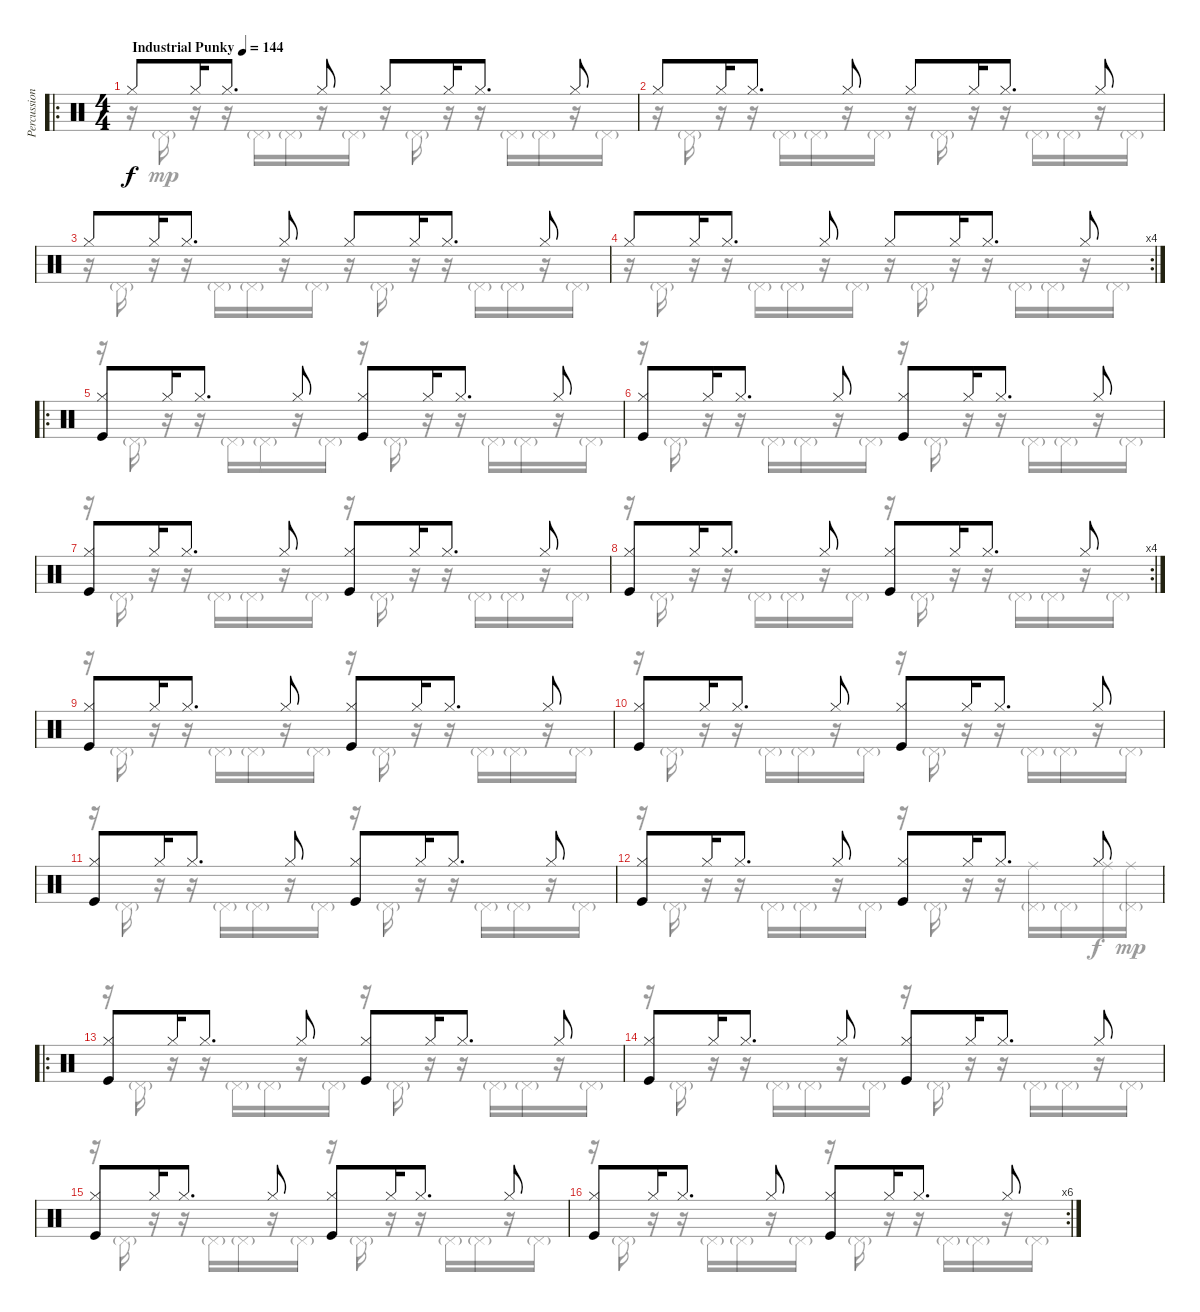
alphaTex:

\track ("Percussion" "Percussion") {instrument percussion}
\staff {score}
\articulation defaults
\voice
\ro
\ts (4 4)
\tempo (144 "Industrial Punky")
\clef neutral
\ks c "Hi-Hat (closed)".8{dy f} "Hi-Hat (closed)".16 "Hi-Hat (closed)".8{d} "Hi-Hat (closed)".8 "Hi-Hat (closed)".8 "Hi-Hat (closed)".16 "Hi-Hat (closed)".8{d} "Hi-Hat (closed)".8
|
"Hi-Hat (closed)".8 "Hi-Hat (closed)".16 "Hi-Hat (closed)".8{d} "Hi-Hat (closed)".8 "Hi-Hat (closed)".8 "Hi-Hat (closed)".16 "Hi-Hat (closed)".8{d} "Hi-Hat (closed)".8 |
"Hi-Hat (closed)".8 "Hi-Hat (closed)".16 "Hi-Hat (closed)".8{d} "Hi-Hat (closed)".8 "Hi-Hat (closed)".8 "Hi-Hat (closed)".16 "Hi-Hat (closed)".8{d} "Hi-Hat (closed)".8 |
\rc 4 "Hi-Hat (closed)".8 "Hi-Hat (closed)".16 "Hi-Hat (closed)".8{d} "Hi-Hat (closed)".8 "Hi-Hat (closed)".8 "Hi-Hat (closed)".16 "Hi-Hat (closed)".8{d} "Hi-Hat (closed)".8
|
\ro
("Hi-Hat (closed)" "Kick (hit)").8 "Hi-Hat (closed)".16 "Hi-Hat (closed)".8{d} "Hi-Hat (closed)".8 ("Hi-Hat (closed)" "Kick (hit)").8 "Hi-Hat (closed)".16 "Hi-Hat (closed)".8{d} "Hi-Hat (closed)".8 |
("Hi-Hat (closed)" "Kick (hit)").8 "Hi-Hat (closed)".16 "Hi-Hat (closed)".8{d} "Hi-Hat (closed)".8 ("Hi-Hat (closed)" "Kick (hit)").8 "Hi-Hat (closed)".16 "Hi-Hat (closed)".8{d} "Hi-Hat (closed)".8 |
("Hi-Hat (closed)" "Kick (hit)").8 "Hi-Hat (closed)".16 "Hi-Hat (closed)".8{d} "Hi-Hat (closed)".8 ("Hi-Hat (closed)" "Kick (hit)").8 "Hi-Hat (closed)".16 "Hi-Hat (closed)".8{d} "Hi-Hat (closed)".8 |
\rc 4
("Hi-Hat (closed)" "Kick (hit)").8 "Hi-Hat (closed)".16 "Hi-Hat (closed)".8{d} "Hi-Hat (closed)".8 ("Hi-Hat (closed)" "Kick (hit)").8 "Hi-Hat (closed)".16 "Hi-Hat (closed)".8{d} "Hi-Hat (closed)".8 |
("Hi-Hat (closed)" "Kick (hit)").8 "Hi-Hat (closed)".16 "Hi-Hat (closed)".8{d} "Hi-Hat (closed)".8 ("Hi-Hat (closed)" "Kick (hit)").8 "Hi-Hat (closed)".16 "Hi-Hat (closed)".8{d} "Hi-Hat (closed)".8 |
("Hi-Hat (closed)" "Kick (hit)").8 "Hi-Hat (closed)".16 "Hi-Hat (closed)".8{d} "Hi-Hat (closed)".8 ("Hi-Hat (closed)" "Kick (hit)").8 "Hi-Hat (closed)".16 "Hi-Hat (closed)".8{d} "Hi-Hat (closed)".8 |
("Hi-Hat (closed)" "Kick (hit)").8 "Hi-Hat (closed)".16 "Hi-Hat (closed)".8{d} "Hi-Hat (closed)".8 ("Hi-Hat (closed)" "Kick (hit)").8 "Hi-Hat (closed)".16 "Hi-Hat (closed)".8{d} "Hi-Hat (closed)".8 |
("Hi-Hat (closed)" "Kick (hit)").8 "Hi-Hat (closed)".16 "Hi-Hat (closed)".8{d} "Hi-Hat (closed)".8 ("Hi-Hat (closed)" "Kick (hit)").8 "Hi-Hat (closed)".16 "Hi-Hat (closed)".8{d} "Hi-Hat (closed)".8 |
\ro
("Hi-Hat (closed)" "Kick (hit)").8 "Hi-Hat (closed)".16 "Hi-Hat (closed)".8{d} "Hi-Hat (closed)".8 ("Hi-Hat (closed)" "Kick (hit)").8 "Hi-Hat (closed)".16 "Hi-Hat (closed)".8{d} "Hi-Hat (closed)".8 |
("Hi-Hat (closed)" "Kick (hit)").8 "Hi-Hat (closed)".16 "Hi-Hat (closed)".8{d} "Hi-Hat (closed)".8 ("Hi-Hat (closed)" "Kick (hit)").8 "Hi-Hat (closed)".16 "Hi-Hat (closed)".8{d} "Hi-Hat (closed)".8 |
("Hi-Hat (closed)" "Kick (hit)").8 "Hi-Hat (closed)".16 "Hi-Hat (closed)".8{d} "Hi-Hat (closed)".8 ("Hi-Hat (closed)" "Kick (hit)").8 "Hi-Hat (closed)".16 "Hi-Hat (closed)".8{d} "Hi-Hat (closed)".8 |
\rc 6
("Hi-Hat (closed)" "Kick (hit)").8 "Hi-Hat (closed)".16 "Hi-Hat (closed)".8{d} "Hi-Hat (closed)".8 ("Hi-Hat (closed)" "Kick (hit)").8 "Hi-Hat (closed)".16 "Hi-Hat (closed)".8{d} "Hi-Hat (closed)".8
\voice
\clef neutral
\ottava regular
\simile none
\ks c
r.16{dy mp} "Pedal Hi-Hat (hit)"{g}.16 r.16 r.16 "Pedal Hi-Hat (hit)"{g}.16 "Pedal Hi-Hat (hit)"{g}.16 r.16 "Pedal Hi-Hat (hit)"{g}.16 r.16 "Pedal Hi-Hat (hit)"{g}.16 r.16 r.16 "Pedal Hi-Hat (hit)"{g}.16 "Pedal Hi-Hat (hit)"{g}.16 r.16 "Pedal Hi-Hat (hit)"{g}.16 |
r.16 "Pedal Hi-Hat (hit)"{g}.16 r.16 r.16 "Pedal Hi-Hat (hit)"{g}.16 "Pedal Hi-Hat (hit)"{g}.16 r.16 "Pedal Hi-Hat (hit)"{g}.16 r.16 "Pedal Hi-Hat (hit)"{g}.16 r.16 r.16 "Pedal Hi-Hat (hit)"{g}.16 "Pedal Hi-Hat (hit)"{g}.16 r.16 "Pedal Hi-Hat (hit)"{g}.16 |
r.16 "Pedal Hi-Hat (hit)"{g}.16 r.16 r.16 "Pedal Hi-Hat (hit)"{g}.16 "Pedal Hi-Hat (hit)"{g}.16 r.16 "Pedal Hi-Hat (hit)"{g}.16 r.16 "Pedal Hi-Hat (hit)"{g}.16 r.16 r.16 "Pedal Hi-Hat (hit)"{g}.16 "Pedal Hi-Hat (hit)"{g}.16 r.16 "Pedal Hi-Hat (hit)"{g}.16 |
r.16 "Pedal Hi-Hat (hit)"{g}.16 r.16 r.16 "Pedal Hi-Hat (hit)"{g}.16 "Pedal Hi-Hat (hit)"{g}.16 r.16 "Pedal Hi-Hat (hit)"{g}.16 r.16 "Pedal Hi-Hat (hit)"{g}.16 r.16 r.16 "Pedal Hi-Hat (hit)"{g}.16 "Pedal Hi-Hat (hit)"{g}.16 r.16 "Pedal Hi-Hat (hit)"{g}.16 |
r.16 "Pedal Hi-Hat (hit)"{g}.16 r.16 r.16 "Pedal Hi-Hat (hit)"{g}.16 "Pedal Hi-Hat (hit)"{g}.16 r.16 "Pedal Hi-Hat (hit)"{g}.16 r.16 "Pedal Hi-Hat (hit)"{g}.16 r.16 r.16 "Pedal Hi-Hat (hit)"{g}.16 "Pedal Hi-Hat (hit)"{g}.16 r.16 "Pedal Hi-Hat (hit)"{g}.16 |
r.16 "Pedal Hi-Hat (hit)"{g}.16 r.16 r.16 "Pedal Hi-Hat (hit)"{g}.16 "Pedal Hi-Hat (hit)"{g}.16 r.16 "Pedal Hi-Hat (hit)"{g}.16 r.16 "Pedal Hi-Hat (hit)"{g}.16 r.16 r.16 "Pedal Hi-Hat (hit)"{g}.16 "Pedal Hi-Hat (hit)"{g}.16 r.16 "Pedal Hi-Hat (hit)"{g}.16 |
r.16 "Pedal Hi-Hat (hit)"{g}.16 r.16 r.16 "Pedal Hi-Hat (hit)"{g}.16 "Pedal Hi-Hat (hit)"{g}.16 r.16 "Pedal Hi-Hat (hit)"{g}.16 r.16 "Pedal Hi-Hat (hit)"{g}.16 r.16 r.16 "Pedal Hi-Hat (hit)"{g}.16 "Pedal Hi-Hat (hit)"{g}.16 r.16 "Pedal Hi-Hat (hit)"{g}.16 |
r.16 "Pedal Hi-Hat (hit)"{g}.16 r.16 r.16 "Pedal Hi-Hat (hit)"{g}.16 "Pedal Hi-Hat (hit)"{g}.16 r.16 "Pedal Hi-Hat (hit)"{g}.16 r.16 "Pedal Hi-Hat (hit)"{g}.16 r.16 r.16 "Pedal Hi-Hat (hit)"{g}.16 "Pedal Hi-Hat (hit)"{g}.16 r.16 "Pedal Hi-Hat (hit)"{g}.16 |
r.16 "Pedal Hi-Hat (hit)"{g}.16 r.16 r.16 "Pedal Hi-Hat (hit)"{g}.16 "Pedal Hi-Hat (hit)"{g}.16 r.16 "Pedal Hi-Hat (hit)"{g}.16 r.16 "Pedal Hi-Hat (hit)"{g}.16 r.16 r.16 "Pedal Hi-Hat (hit)"{g}.16 "Pedal Hi-Hat (hit)"{g}.16 r.16 "Pedal Hi-Hat (hit)"{g}.16 |
r.16 "Pedal Hi-Hat (hit)"{g}.16 r.16 r.16 "Pedal Hi-Hat (hit)"{g}.16 "Pedal Hi-Hat (hit)"{g}.16 r.16 "Pedal Hi-Hat (hit)"{g}.16 r.16 "Pedal Hi-Hat (hit)"{g}.16 r.16 r.16 "Pedal Hi-Hat (hit)"{g}.16 "Pedal Hi-Hat (hit)"{g}.16 r.16 "Pedal Hi-Hat (hit)"{g}.16 |
r.16 "Pedal Hi-Hat (hit)"{g}.16 r.16 r.16 "Pedal Hi-Hat (hit)"{g}.16 "Pedal Hi-Hat (hit)"{g}.16 r.16 "Pedal Hi-Hat (hit)"{g}.16 r.16 "Pedal Hi-Hat (hit)"{g}.16 r.16 r.16 "Pedal Hi-Hat (hit)"{g}.16 "Pedal Hi-Hat (hit)"{g}.16 r.16 "Pedal Hi-Hat (hit)"{g}.16 |
r.16 "Pedal Hi-Hat (hit)"{g}.16 r.16 r.16 "Pedal Hi-Hat (hit)"{g}.16 "Pedal Hi-Hat (hit)"{g}.16 r.16 "Pedal Hi-Hat (hit)"{g}.16 r.16 "Pedal Hi-Hat (hit)"{g}.16 r.16 r.16 ("Ride (middle)" "Pedal Hi-Hat (hit)"{g}).16 "Pedal Hi-Hat (hit)"{g}.16 "Ride (middle)".16{dy f} ("Ride (middle)" "Pedal Hi-Hat (hit)"{g}).16{dy mp} |
r.16 "Pedal Hi-Hat (hit)"{g}.16 r.16 r.16 "Pedal Hi-Hat (hit)"{g}.16 "Pedal Hi-Hat (hit)"{g}.16 r.16 "Pedal Hi-Hat (hit)"{g}.16 r.16 "Pedal Hi-Hat (hit)"{g}.16 r.16 r.16 "Pedal Hi-Hat (hit)"{g}.16 "Pedal Hi-Hat (hit)"{g}.16 r.16 "Pedal Hi-Hat (hit)"{g}.16 |
r.16 "Pedal Hi-Hat (hit)"{g}.16 r.16 r.16 "Pedal Hi-Hat (hit)"{g}.16 "Pedal Hi-Hat (hit)"{g}.16 r.16 "Pedal Hi-Hat (hit)"{g}.16 r.16 "Pedal Hi-Hat (hit)"{g}.16 r.16 r.16 "Pedal Hi-Hat (hit)"{g}.16 "Pedal Hi-Hat (hit)"{g}.16 r.16 "Pedal Hi-Hat (hit)"{g}.16 |
r.16 "Pedal Hi-Hat (hit)"{g}.16 r.16 r.16 "Pedal Hi-Hat (hit)"{g}.16 "Pedal Hi-Hat (hit)"{g}.16 r.16 "Pedal Hi-Hat (hit)"{g}.16 r.16 "Pedal Hi-Hat (hit)"{g}.16 r.16 r.16 "Pedal Hi-Hat (hit)"{g}.16 "Pedal Hi-Hat (hit)"{g}.16 r.16 "Pedal Hi-Hat (hit)"{g}.16 |
r.16 "Pedal Hi-Hat (hit)"{g}.16 r.16 r.16 "Pedal Hi-Hat (hit)"{g}.16 "Pedal Hi-Hat (hit)"{g}.16 r.16 "Pedal Hi-Hat (hit)"{g}.16 r.16 "Pedal Hi-Hat (hit)"{g}.16 r.16 r.16 "Pedal Hi-Hat (hit)"{g}.16 "Pedal Hi-Hat (hit)"{g}.16 r.16 "Pedal Hi-Hat (hit)"{g}.16
